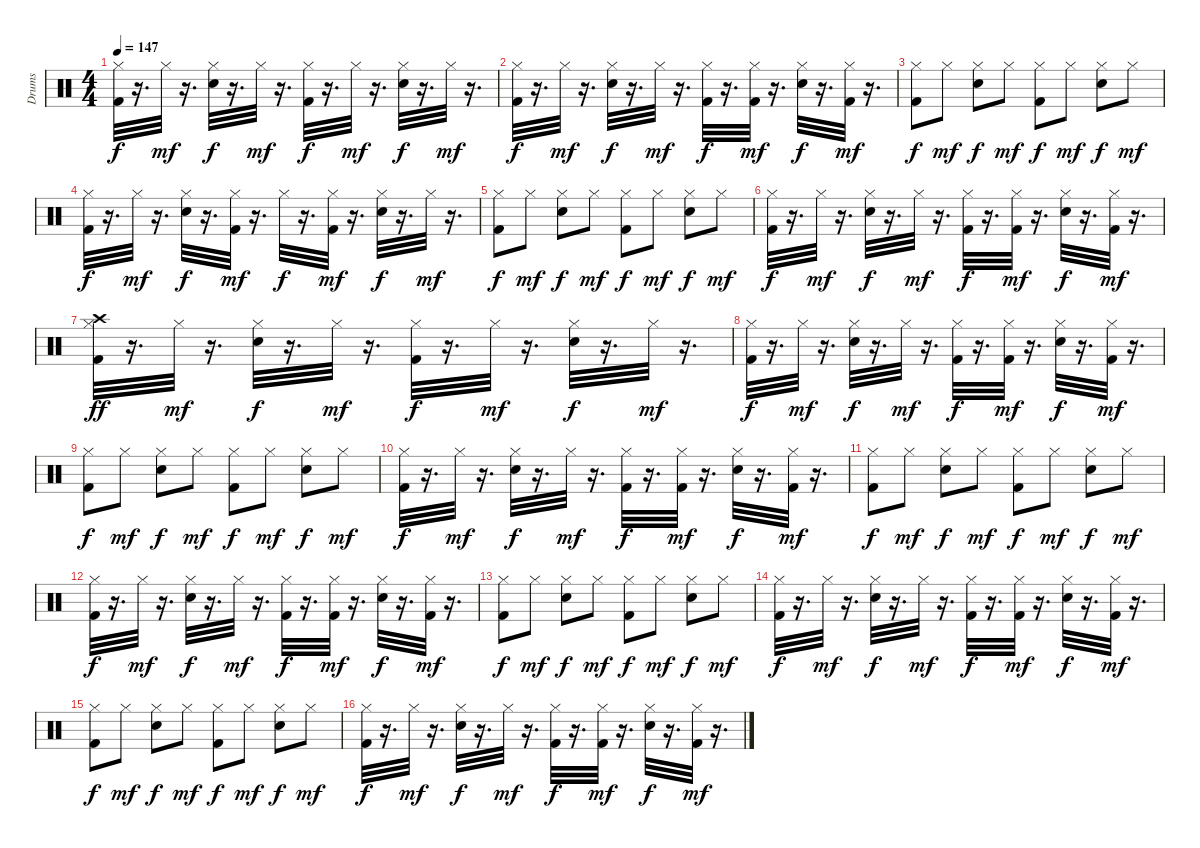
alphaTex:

\track ("Drums" "Drums") {instrument percussion}
\staff {score}
\articulation defaults
\ts (4 4)
\tempo 147
\clef neutral
\ks c
("Kick (hit) 2" "Hi-Hat (closed)").32{dy f} r.16{d} "Hi-Hat (closed)".32{dy mf} r.16{d} ("Snare (hit) 2" "Hi-Hat (closed)").32{dy f} r.16{d} "Hi-Hat (closed)".32{dy mf} r.16{d} ("Kick (hit) 2" "Hi-Hat (closed)").32{dy f} r.16{d} "Hi-Hat (closed)".32{dy mf} r.16{d} ("Snare (hit) 2" "Hi-Hat (closed)").32{dy f} r.16{d} "Hi-Hat (closed)".32{dy mf} r.16{d} |
("Kick (hit) 2" "Hi-Hat (closed)").32{dy f} r.16{d} "Hi-Hat (closed)".32{dy mf} r.16{d} ("Snare (hit) 2" "Hi-Hat (closed)").32{dy f} r.16{d} "Hi-Hat (closed)".32{dy mf} r.16{d} ("Kick (hit) 2" "Hi-Hat (closed)").32{dy f} r.16{d} ("Kick (hit) 2" "Hi-Hat (closed)").32{dy mf} r.16{d} ("Snare (hit) 2" "Hi-Hat (closed)").32{dy f} r.16{d} ("Kick (hit) 2" "Hi-Hat (closed)").32{dy mf} r.16{d} |
("Hi-Hat (closed)" "Kick (hit) 2").8{dy f} "Hi-Hat (closed)".8{dy mf} ("Hi-Hat (closed)" "Snare (hit) 2").8{dy f} "Hi-Hat (closed)".8{dy mf} ("Hi-Hat (closed)" "Kick (hit) 2").8{dy f} "Hi-Hat (closed)".8{dy mf} ("Hi-Hat (closed)" "Snare (hit) 2").8{dy f} "Hi-Hat (closed)".8{dy mf} |
("Kick (hit) 2" "Hi-Hat (closed)").32{dy f} r.16{d} "Hi-Hat (closed)".32{dy mf} r.16{d} ("Snare (hit) 2" "Hi-Hat (closed)").32{dy f} r.16{d} ("Kick (hit) 2" "Hi-Hat (closed)").32{dy mf} r.16{d} "Hi-Hat (closed)".32{dy f} r.16{d} ("Kick (hit) 2" "Hi-Hat (closed)").32{dy mf} r.16{d} ("Snare (hit) 2" "Hi-Hat (closed)").32{dy f} r.16{d} "Hi-Hat (closed)".32{dy mf} r.16{d} |
("Hi-Hat (closed)" "Kick (hit) 2").8{dy f} "Hi-Hat (closed)".8{dy mf} ("Hi-Hat (closed)" "Snare (hit) 2").8{dy f} "Hi-Hat (closed)".8{dy mf} ("Hi-Hat (closed)" "Kick (hit) 2").8{dy f} "Hi-Hat (closed)".8{dy mf} ("Hi-Hat (closed)" "Snare (hit) 2").8{dy f} "Hi-Hat (closed)".8{dy mf} |
("Kick (hit) 2" "Hi-Hat (closed)").32{dy f} r.16{d} "Hi-Hat (closed)".32{dy mf} r.16{d} ("Snare (hit) 2" "Hi-Hat (closed)").32{dy f} r.16{d} "Hi-Hat (closed)".32{dy mf} r.16{d} ("Kick (hit) 2" "Hi-Hat (closed)").32{dy f} r.16{d} ("Kick (hit) 2" "Hi-Hat (closed)").32{dy mf} r.16{d} ("Snare (hit) 2" "Hi-Hat (closed)").32{dy f} r.16{d} ("Kick (hit) 2" "Hi-Hat (closed)").32{dy mf} r.16{d} |
("Kick (hit) 2" "Hi-Hat (closed)" "Crash high (hit)").32{dy ff} r.16{d} "Hi-Hat (closed)".32{dy mf} r.16{d} ("Snare (hit) 2" "Hi-Hat (closed)").32{dy f} r.16{d} "Hi-Hat (closed)".32{dy mf} r.16{d} ("Kick (hit) 2" "Hi-Hat (closed)").32{dy f} r.16{d} "Hi-Hat (closed)".32{dy mf} r.16{d} ("Snare (hit) 2" "Hi-Hat (closed)").32{dy f} r.16{d} "Hi-Hat (closed)".32{dy mf} r.16{d} |
("Kick (hit) 2" "Hi-Hat (closed)").32{dy f} r.16{d} "Hi-Hat (closed)".32{dy mf} r.16{d} ("Snare (hit) 2" "Hi-Hat (closed)").32{dy f} r.16{d} "Hi-Hat (closed)".32{dy mf} r.16{d} ("Kick (hit) 2" "Hi-Hat (closed)").32{dy f} r.16{d} ("Kick (hit) 2" "Hi-Hat (closed)").32{dy mf} r.16{d} ("Snare (hit) 2" "Hi-Hat (closed)").32{dy f} r.16{d} ("Kick (hit) 2" "Hi-Hat (closed)").32{dy mf} r.16{d} |
("Hi-Hat (closed)" "Kick (hit) 2").8{dy f} "Hi-Hat (closed)".8{dy mf} ("Hi-Hat (closed)" "Snare (hit) 2").8{dy f} "Hi-Hat (closed)".8{dy mf} ("Hi-Hat (closed)" "Kick (hit) 2").8{dy f} "Hi-Hat (closed)".8{dy mf} ("Hi-Hat (closed)" "Snare (hit) 2").8{dy f} "Hi-Hat (closed)".8{dy mf} |
("Kick (hit) 2" "Hi-Hat (closed)").32{dy f} r.16{d} "Hi-Hat (closed)".32{dy mf} r.16{d} ("Snare (hit) 2" "Hi-Hat (closed)").32{dy f} r.16{d} "Hi-Hat (closed)".32{dy mf} r.16{d} ("Kick (hit) 2" "Hi-Hat (closed)").32{dy f} r.16{d} ("Kick (hit) 2" "Hi-Hat (closed)").32{dy mf} r.16{d} ("Snare (hit) 2" "Hi-Hat (closed)").32{dy f} r.16{d} ("Kick (hit) 2" "Hi-Hat (closed)").32{dy mf} r.16{d} |
("Hi-Hat (closed)" "Kick (hit) 2").8{dy f} "Hi-Hat (closed)".8{dy mf} ("Hi-Hat (closed)" "Snare (hit) 2").8{dy f} "Hi-Hat (closed)".8{dy mf} ("Hi-Hat (closed)" "Kick (hit) 2").8{dy f} "Hi-Hat (closed)".8{dy mf} ("Hi-Hat (closed)" "Snare (hit) 2").8{dy f} "Hi-Hat (closed)".8{dy mf} |
("Kick (hit) 2" "Hi-Hat (closed)").32{dy f} r.16{d} "Hi-Hat (closed)".32{dy mf} r.16{d} ("Snare (hit) 2" "Hi-Hat (closed)").32{dy f} r.16{d} "Hi-Hat (closed)".32{dy mf} r.16{d} ("Kick (hit) 2" "Hi-Hat (closed)").32{dy f} r.16{d} ("Kick (hit) 2" "Hi-Hat (closed)").32{dy mf} r.16{d} ("Snare (hit) 2" "Hi-Hat (closed)").32{dy f} r.16{d} ("Kick (hit) 2" "Hi-Hat (closed)").32{dy mf} r.16{d} |
("Hi-Hat (closed)" "Kick (hit) 2").8{dy f} "Hi-Hat (closed)".8{dy mf} ("Hi-Hat (closed)" "Snare (hit) 2").8{dy f} "Hi-Hat (closed)".8{dy mf} ("Hi-Hat (closed)" "Kick (hit) 2").8{dy f} "Hi-Hat (closed)".8{dy mf} ("Hi-Hat (closed)" "Snare (hit) 2").8{dy f} "Hi-Hat (closed)".8{dy mf} |
("Kick (hit) 2" "Hi-Hat (closed)").32{dy f} r.16{d} "Hi-Hat (closed)".32{dy mf} r.16{d} ("Snare (hit) 2" "Hi-Hat (closed)").32{dy f} r.16{d} "Hi-Hat (closed)".32{dy mf} r.16{d} ("Kick (hit) 2" "Hi-Hat (closed)").32{dy f} r.16{d} ("Kick (hit) 2" "Hi-Hat (closed)").32{dy mf} r.16{d} ("Snare (hit) 2" "Hi-Hat (closed)").32{dy f} r.16{d} ("Kick (hit) 2" "Hi-Hat (closed)").32{dy mf} r.16{d} |
("Hi-Hat (closed)" "Kick (hit) 2").8{dy f} "Hi-Hat (closed)".8{dy mf} ("Hi-Hat (closed)" "Snare (hit) 2").8{dy f} "Hi-Hat (closed)".8{dy mf} ("Hi-Hat (closed)" "Kick (hit) 2").8{dy f} "Hi-Hat (closed)".8{dy mf} ("Hi-Hat (closed)" "Snare (hit) 2").8{dy f} "Hi-Hat (closed)".8{dy mf} |
("Kick (hit) 2" "Hi-Hat (closed)").32{dy f} r.16{d} "Hi-Hat (closed)".32{dy mf} r.16{d} ("Snare (hit) 2" "Hi-Hat (closed)").32{dy f} r.16{d} "Hi-Hat (closed)".32{dy mf} r.16{d} ("Kick (hit) 2" "Hi-Hat (closed)").32{dy f} r.16{d} ("Kick (hit) 2" "Hi-Hat (closed)").32{dy mf} r.16{d} ("Snare (hit) 2" "Hi-Hat (closed)").32{dy f} r.16{d} ("Kick (hit) 2" "Hi-Hat (closed)").32{dy mf} r.16{d}
